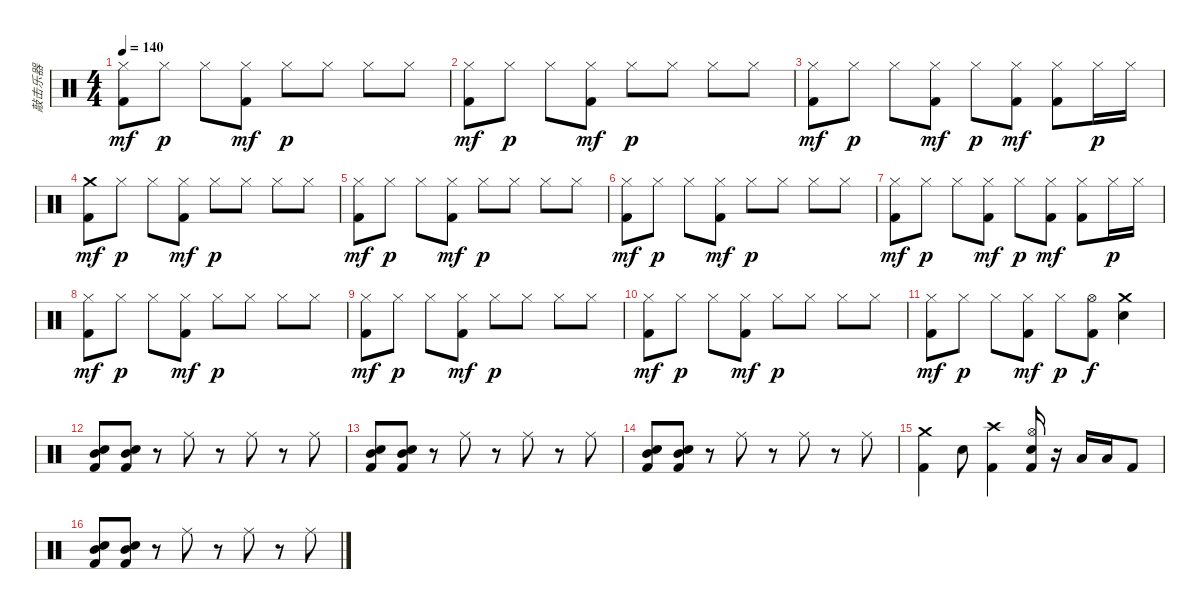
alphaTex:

\track ("敲击乐器" "敲击乐器") {instrument percussion}
\staff {score}
\articulation defaults
\ts (4 4)
\tempo 140
\clef neutral
\ks c
("Hi-Hat (closed)" "Kick (hit) 2").8{dy mf} "Hi-Hat (closed)".8{dy p} "Hi-Hat (closed)".8 ("Hi-Hat (closed)" "Kick (hit) 2").8{dy mf} "Hi-Hat (closed)".8{dy p} "Hi-Hat (closed)".8 "Hi-Hat (closed)".8 "Hi-Hat (closed)".8 |
("Hi-Hat (closed)" "Kick (hit) 2").8{dy mf} "Hi-Hat (closed)".8{dy p} "Hi-Hat (closed)".8 ("Hi-Hat (closed)" "Kick (hit) 2").8{dy mf} "Hi-Hat (closed)".8{dy p} "Hi-Hat (closed)".8 "Hi-Hat (closed)".8 "Hi-Hat (closed)".8 |
("Hi-Hat (closed)" "Kick (hit) 2").8{dy mf} "Hi-Hat (closed)".8{dy p} "Hi-Hat (closed)".8 ("Hi-Hat (closed)" "Kick (hit) 2").8{dy mf} "Hi-Hat (closed)".8{dy p} ("Hi-Hat (closed)" "Kick (hit) 2").8{dy mf} ("Hi-Hat (closed)" "Kick (hit) 2").8 "Hi-Hat (closed)".16{dy p} "Hi-Hat (closed)".16 |
("Crash medium (hit)" "Kick (hit) 2").8{dy mf} "Hi-Hat (closed)".8{dy p} "Hi-Hat (closed)".8 ("Hi-Hat (closed)" "Kick (hit) 2").8{dy mf} "Hi-Hat (closed)".8{dy p} "Hi-Hat (closed)".8 "Hi-Hat (closed)".8 "Hi-Hat (closed)".8 |
("Hi-Hat (closed)" "Kick (hit) 2").8{dy mf} "Hi-Hat (closed)".8{dy p} "Hi-Hat (closed)".8 ("Hi-Hat (closed)" "Kick (hit) 2").8{dy mf} "Hi-Hat (closed)".8{dy p} "Hi-Hat (closed)".8 "Hi-Hat (closed)".8 "Hi-Hat (closed)".8 |
("Hi-Hat (closed)" "Kick (hit) 2").8{dy mf} "Hi-Hat (closed)".8{dy p} "Hi-Hat (closed)".8 ("Hi-Hat (closed)" "Kick (hit) 2").8{dy mf} "Hi-Hat (closed)".8{dy p} "Hi-Hat (closed)".8 "Hi-Hat (closed)".8 "Hi-Hat (closed)".8 |
("Hi-Hat (closed)" "Kick (hit) 2").8{dy mf} "Hi-Hat (closed)".8{dy p} "Hi-Hat (closed)".8 ("Hi-Hat (closed)" "Kick (hit) 2").8{dy mf} "Hi-Hat (closed)".8{dy p} ("Hi-Hat (closed)" "Kick (hit) 2").8{dy mf} ("Hi-Hat (closed)" "Kick (hit) 2").8 "Hi-Hat (closed)".16{dy p} "Hi-Hat (closed)".16 |
("Hi-Hat (closed)" "Kick (hit) 2").8{dy mf} "Hi-Hat (closed)".8{dy p} "Hi-Hat (closed)".8 ("Hi-Hat (closed)" "Kick (hit) 2").8{dy mf} "Hi-Hat (closed)".8{dy p} "Hi-Hat (closed)".8 "Hi-Hat (closed)".8 "Hi-Hat (closed)".8 |
("Hi-Hat (closed)" "Kick (hit) 2").8{dy mf} "Hi-Hat (closed)".8{dy p} "Hi-Hat (closed)".8 ("Hi-Hat (closed)" "Kick (hit) 2").8{dy mf} "Hi-Hat (closed)".8{dy p} "Hi-Hat (closed)".8 "Hi-Hat (closed)".8 "Hi-Hat (closed)".8 |
("Hi-Hat (closed)" "Kick (hit) 2").8{dy mf} "Hi-Hat (closed)".8{dy p} "Hi-Hat (closed)".8 ("Hi-Hat (closed)" "Kick (hit) 2").8{dy mf} "Hi-Hat (closed)".8{dy p} "Hi-Hat (closed)".8 "Hi-Hat (closed)".8 "Hi-Hat (closed)".8 |
("Hi-Hat (closed)" "Kick (hit) 2").8{dy mf} "Hi-Hat (closed)".8{dy p} "Hi-Hat (closed)".8 ("Hi-Hat (closed)" "Kick (hit) 2").8{dy mf} "Hi-Hat (closed)".8{dy p} ("Hi-Hat (open)" "Kick (hit) 2").8{dy f} ("Crash medium (hit)" "Snare (hit) 2").4 |
("Snare (hit) 2" "Mid Tom (hit)" "Kick (hit) 2").8 ("Snare (hit) 2" "Mid Tom (hit)" "Kick (hit) 2").8 r.8 "Ride (middle)".8 r.8 "Ride (middle)".8 r.8 "Ride (middle)".8 |
("Snare (hit) 2" "Mid Tom (hit)" "Kick (hit) 2").8 ("Snare (hit) 2" "Mid Tom (hit)" "Kick (hit) 2").8 r.8 "Ride (middle)".8 r.8 "Ride (middle)".8 r.8 "Ride (middle)".8 |
("Snare (hit) 2" "Mid Tom (hit)" "Kick (hit) 2").8 ("Snare (hit) 2" "Mid Tom (hit)" "Kick (hit) 2").8 r.8 "Ride (middle)".8 r.8 "Ride (middle)".8 r.8 "Ride (middle)".8 |
("Crash medium (hit)" "Kick (hit) 2").4 "Snare (hit) 2".8 ("Crash high (hit)" "Kick (hit) 2").4 ("Hi-Hat (open)" "Snare (hit) 2" "Kick (hit) 2").16 r.16 "Low Tom (hit)".16 "Low Tom (hit)".16 "Kick (hit) 2".8 |
("Snare (hit) 2" "Mid Tom (hit)" "Kick (hit) 2").8 ("Snare (hit) 2" "Mid Tom (hit)" "Kick (hit) 2").8 r.8 "Ride (middle)".8 r.8 "Ride (middle)".8 r.8 "Ride (middle)".8
